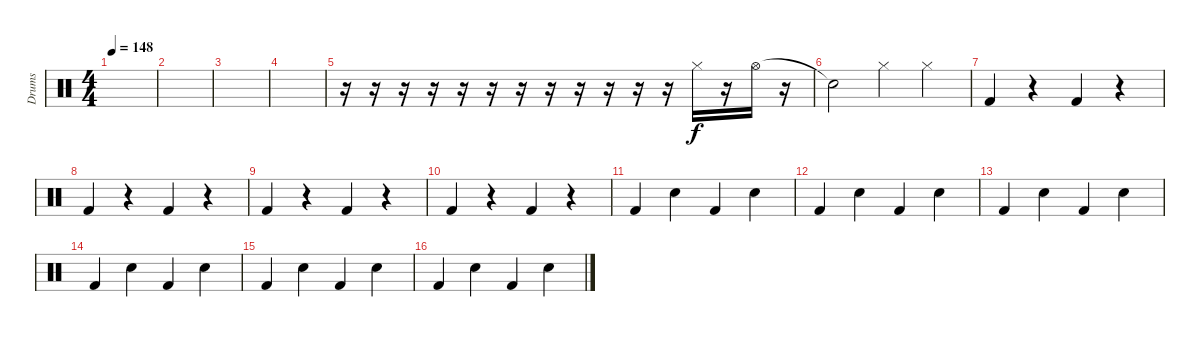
\track ("Drums" "Drums") {instrument percussion}
\staff {score}
\articulation defaults
\ts (4 4)
\tempo 148
\clef neutral
\ks c
|
|
|
|
r.16 r.16 r.16 r.16 r.16 r.16 r.16 r.16 r.16 r.16 r.16 r.16 "Hi-Hat (closed)".16 r.16 "Hi-Hat (open)".16 r.16 |
"Snare (hit)"{t}.2 "Hi-Hat (closed)".4 "Hi-Hat (closed)".4 |
"Kick (hit) 2".4 r.4 "Kick (hit) 2".4 r.4 |
"Kick (hit) 2".4 r.4 "Kick (hit) 2".4 r.4 |
"Kick (hit) 2".4 r.4 "Kick (hit) 2".4 r.4 |
"Kick (hit) 2".4 r.4 "Kick (hit) 2".4 r.4 |
"Kick (hit) 2".4 "Snare (hit) 2".4 "Kick (hit) 2".4 "Snare (hit) 2".4 |
"Kick (hit) 2".4 "Snare (hit) 2".4 "Kick (hit) 2".4 "Snare (hit) 2".4 |
"Kick (hit) 2".4 "Snare (hit) 2".4 "Kick (hit) 2".4 "Snare (hit) 2".4 |
"Kick (hit) 2".4 "Snare (hit) 2".4 "Kick (hit) 2".4 "Snare (hit) 2".4 |
"Kick (hit) 2".4 "Snare (hit) 2".4 "Kick (hit) 2".4 "Snare (hit) 2".4 |
"Kick (hit) 2".4 "Snare (hit) 2".4 "Kick (hit) 2".4 "Snare (hit) 2".4
